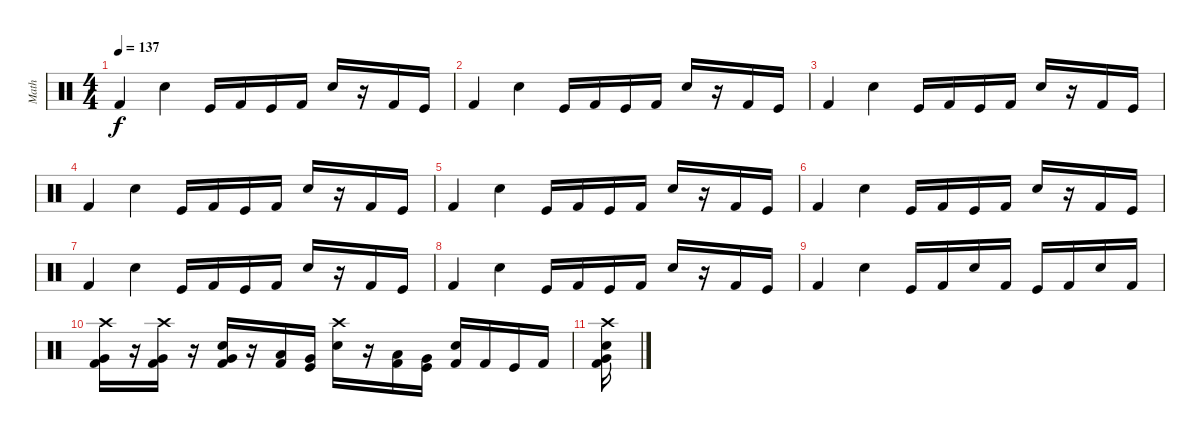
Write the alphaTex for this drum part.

\track ("Math" "Math") {instrument percussion}
\staff {score}
\articulation defaults
\ts (4 4)
\tempo 137
\clef neutral
\ks c "Kick (hit) 2".4{dy f} "Snare (hit) 2".4 "Kick (hit)".16 "Kick (hit) 2".16 "Kick (hit)".16 "Kick (hit) 2".16 "Snare (hit) 2".16
r.16 "Kick (hit) 2".16 "Kick (hit)".16 |
"Kick (hit) 2".4 "Snare (hit) 2".4 "Kick (hit)".16 "Kick (hit) 2".16 "Kick (hit)".16 "Kick (hit) 2".16 "Snare (hit) 2".16 r.16 "Kick (hit) 2".16 "Kick (hit)".16 |
"Kick (hit) 2".4 "Snare (hit) 2".4 "Kick (hit)".16 "Kick (hit) 2".16 "Kick (hit)".16 "Kick (hit) 2".16 "Snare (hit) 2".16 r.16 "Kick (hit) 2".16 "Kick (hit)".16 |
"Kick (hit) 2".4 "Snare (hit) 2".4 "Kick (hit)".16 "Kick (hit) 2".16 "Kick (hit)".16 "Kick (hit) 2".16 "Snare (hit) 2".16 r.16 "Kick (hit) 2".16 "Kick (hit)".16 |
"Kick (hit) 2".4 "Snare (hit) 2".4 "Kick (hit)".16 "Kick (hit) 2".16 "Kick (hit)".16 "Kick (hit) 2".16 "Snare (hit) 2".16 r.16 "Kick (hit) 2".16 "Kick (hit)".16 |
"Kick (hit) 2".4 "Snare (hit) 2".4 "Kick (hit)".16 "Kick (hit) 2".16 "Kick (hit)".16 "Kick (hit) 2".16 "Snare (hit) 2".16 r.16 "Kick (hit) 2".16 "Kick (hit)".16 |
"Kick (hit) 2".4 "Snare (hit) 2".4 "Kick (hit)".16 "Kick (hit) 2".16 "Kick (hit)".16 "Kick (hit) 2".16 "Snare (hit) 2".16 r.16 "Kick (hit) 2".16 "Kick (hit)".16 |
"Kick (hit) 2".4 "Snare (hit) 2".4 "Kick (hit)".16 "Kick (hit) 2".16 "Kick (hit)".16 "Kick (hit) 2".16 "Snare (hit) 2".16 r.16 "Kick (hit) 2".16 "Kick (hit)".16 |
"Kick (hit) 2".4 "Snare (hit) 2".4 "Kick (hit)".16 "Kick (hit) 2".16 "Snare (hit) 2".16 "Kick (hit) 2".16 "Kick (hit)".16 "Kick (hit) 2".16 "Snare (hit) 2".16 "Kick (hit) 2".16 |
("Very Low Tom (hit)" "Crash high (hit)" "Kick (hit) 2").16 r.16 ("Very Low Tom (hit)" "Crash high (hit)" "Kick (hit) 2").16 r.16 ("Kick (hit) 2" "Snare (hit) 2" "Very Low Tom (hit)").16 r.16 ("Low Tom (hit)" "Kick (hit) 2").16 ("Very Low Tom (hit)" "Kick (hit)").16 ("Snare (hit) 2" "Crash high (hit)").16 r.16 ("Low Tom (hit)" "Kick (hit) 2").16 ("Very Low Tom (hit)" "Kick (hit)").16 ("Snare (hit) 2" "Kick (hit) 2").16 "Kick (hit) 2".16 "Kick (hit)".16 "Kick (hit) 2".16 |
("Crash high (hit)" "Very Low Tom (hit)" "Kick (hit) 2" "Snare (hit) 2").16
